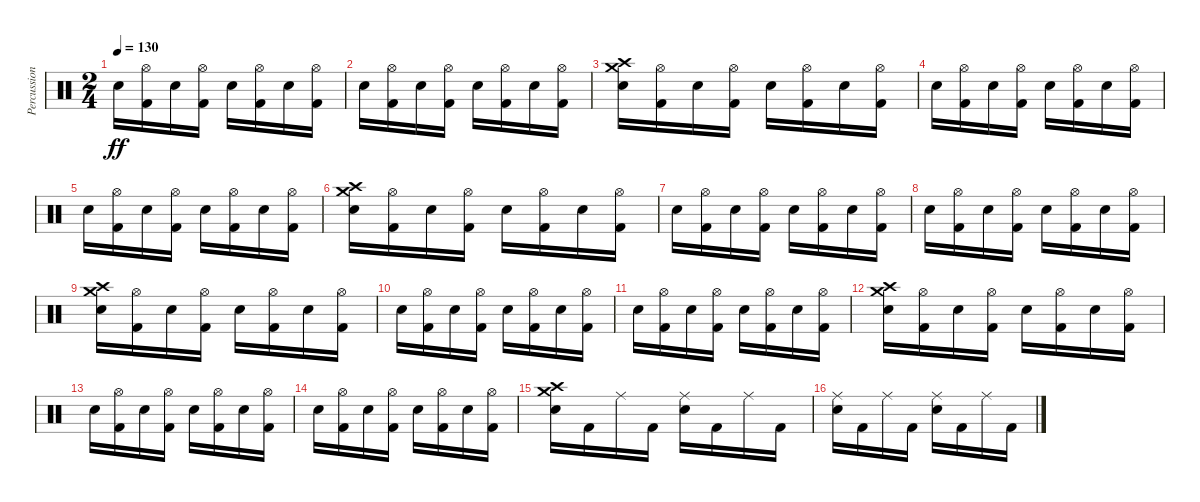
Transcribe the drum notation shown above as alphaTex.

\track ("Percussion" "Percussion") {instrument percussion}
\staff {score}
\articulation defaults
\ts (2 4)
\tempo 130
\clef neutral
\ks c "Snare (hit) 2".16{dy ff}
("Hi-Hat (open)" "Kick (hit) 2").16 "Snare (hit) 2".16 ("Hi-Hat (open)" "Kick (hit) 2").16 "Snare (hit) 2".16 ("Hi-Hat (open)" "Kick (hit) 2").16 "Snare (hit) 2".16 ("Hi-Hat (open)" "Kick (hit) 2").16 |
"Snare (hit) 2".16 ("Hi-Hat (open)" "Kick (hit) 2").16 "Snare (hit) 2".16 ("Hi-Hat (open)" "Kick (hit) 2").16 "Snare (hit) 2".16 ("Hi-Hat (open)" "Kick (hit) 2").16 "Snare (hit) 2".16 ("Hi-Hat (open)" "Kick (hit) 2").16 |
("Crash medium (hit)" "Crash high (hit)" "Snare (hit) 2").16 ("Hi-Hat (open)" "Kick (hit) 2").16 "Snare (hit) 2".16 ("Hi-Hat (open)" "Kick (hit) 2").16 "Snare (hit) 2".16 ("Hi-Hat (open)" "Kick (hit) 2").16 "Snare (hit) 2".16 ("Hi-Hat (open)" "Kick (hit) 2").16 |
"Snare (hit) 2".16 ("Hi-Hat (open)" "Kick (hit) 2").16 "Snare (hit) 2".16 ("Hi-Hat (open)" "Kick (hit) 2").16 "Snare (hit) 2".16 ("Hi-Hat (open)" "Kick (hit) 2").16 "Snare (hit) 2".16 ("Hi-Hat (open)" "Kick (hit) 2").16 |
"Snare (hit) 2".16 ("Hi-Hat (open)" "Kick (hit) 2").16 "Snare (hit) 2".16 ("Hi-Hat (open)" "Kick (hit) 2").16 "Snare (hit) 2".16 ("Hi-Hat (open)" "Kick (hit) 2").16 "Snare (hit) 2".16 ("Hi-Hat (open)" "Kick (hit) 2").16 |
("Crash medium (hit)" "Crash high (hit)" "Snare (hit) 2").16 ("Hi-Hat (open)" "Kick (hit) 2").16 "Snare (hit) 2".16 ("Hi-Hat (open)" "Kick (hit) 2").16 "Snare (hit) 2".16 ("Hi-Hat (open)" "Kick (hit) 2").16 "Snare (hit) 2".16 ("Hi-Hat (open)" "Kick (hit) 2").16 |
"Snare (hit) 2".16 ("Hi-Hat (open)" "Kick (hit) 2").16 "Snare (hit) 2".16 ("Hi-Hat (open)" "Kick (hit) 2").16 "Snare (hit) 2".16 ("Hi-Hat (open)" "Kick (hit) 2").16 "Snare (hit) 2".16 ("Hi-Hat (open)" "Kick (hit) 2").16 |
"Snare (hit) 2".16 ("Hi-Hat (open)" "Kick (hit) 2").16 "Snare (hit) 2".16 ("Hi-Hat (open)" "Kick (hit) 2").16 "Snare (hit) 2".16 ("Hi-Hat (open)" "Kick (hit) 2").16 "Snare (hit) 2".16 ("Hi-Hat (open)" "Kick (hit) 2").16 |
("Crash medium (hit)" "Crash high (hit)" "Snare (hit) 2").16 ("Hi-Hat (open)" "Kick (hit) 2").16 "Snare (hit) 2".16 ("Hi-Hat (open)" "Kick (hit) 2").16 "Snare (hit) 2".16 ("Hi-Hat (open)" "Kick (hit) 2").16 "Snare (hit) 2".16 ("Hi-Hat (open)" "Kick (hit) 2").16 |
"Snare (hit) 2".16 ("Hi-Hat (open)" "Kick (hit) 2").16 "Snare (hit) 2".16 ("Hi-Hat (open)" "Kick (hit) 2").16 "Snare (hit) 2".16 ("Hi-Hat (open)" "Kick (hit) 2").16 "Snare (hit) 2".16 ("Hi-Hat (open)" "Kick (hit) 2").16 |
"Snare (hit) 2".16 ("Hi-Hat (open)" "Kick (hit) 2").16 "Snare (hit) 2".16 ("Hi-Hat (open)" "Kick (hit) 2").16 "Snare (hit) 2".16 ("Hi-Hat (open)" "Kick (hit) 2").16 "Snare (hit) 2".16 ("Hi-Hat (open)" "Kick (hit) 2").16 |
("Crash medium (hit)" "Crash high (hit)" "Snare (hit) 2").16 ("Hi-Hat (open)" "Kick (hit) 2").16 "Snare (hit) 2".16 ("Hi-Hat (open)" "Kick (hit) 2").16 "Snare (hit) 2".16 ("Hi-Hat (open)" "Kick (hit) 2").16 "Snare (hit) 2".16 ("Hi-Hat (open)" "Kick (hit) 2").16 |
"Snare (hit) 2".16 ("Hi-Hat (open)" "Kick (hit) 2").16 "Snare (hit) 2".16 ("Hi-Hat (open)" "Kick (hit) 2").16 "Snare (hit) 2".16 ("Hi-Hat (open)" "Kick (hit) 2").16 "Snare (hit) 2".16 ("Hi-Hat (open)" "Kick (hit) 2").16 |
"Snare (hit) 2".16 ("Hi-Hat (open)" "Kick (hit) 2").16 "Snare (hit) 2".16 ("Hi-Hat (open)" "Kick (hit) 2").16 "Snare (hit) 2".16 ("Hi-Hat (open)" "Kick (hit) 2").16 "Snare (hit) 2".16 ("Hi-Hat (open)" "Kick (hit) 2").16 |
("Crash medium (hit)" "Crash high (hit)" "Snare (hit) 2").16 "Kick (hit) 2".16 "Ride (middle)".16 "Kick (hit) 2".16 ("Ride (middle)" "Snare (hit) 2").16 "Kick (hit) 2".16 "Ride (middle)".16 "Kick (hit) 2".16 |
("Ride (middle)" "Snare (hit) 2").16 "Kick (hit) 2".16 "Ride (middle)".16 "Kick (hit) 2".16 ("Ride (middle)" "Snare (hit) 2").16 "Kick (hit) 2".16 "Ride (middle)".16 "Kick (hit) 2".16
